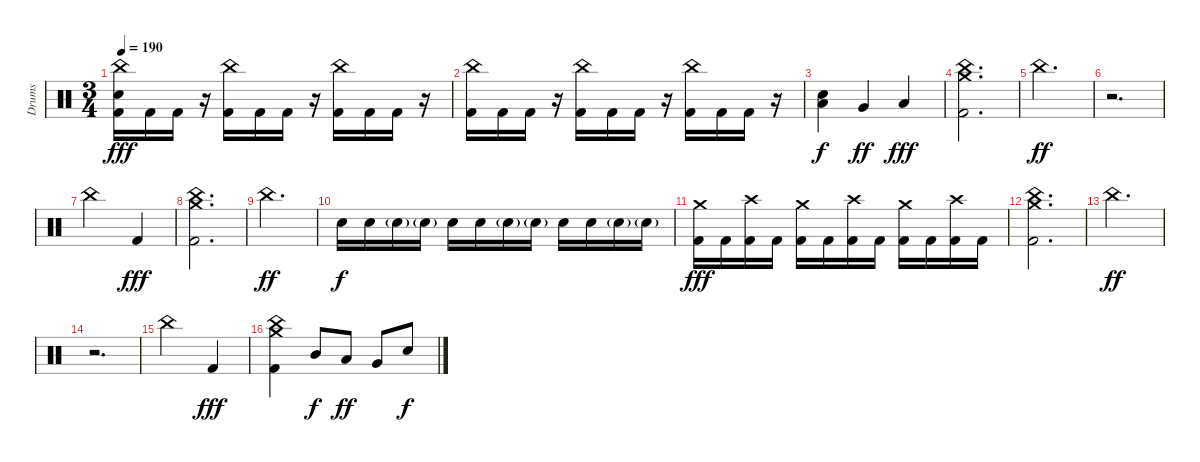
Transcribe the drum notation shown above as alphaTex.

\track ("Drums" "Drums") {instrument percussion}
\staff {score}
\articulation defaults
\ts (3 4)
\tempo 190
\clef neutral
\ks c
("China (hit)" "Snare (hit) 2" "Kick (hit) 2").16{dy fff} "Kick (hit) 2".16 "Kick (hit) 2".16 r.16 ("China (hit)" "Kick (hit) 2").16 "Kick (hit) 2".16 "Kick (hit) 2".16 r.16 ("China (hit)" "Kick (hit) 2").16 "Kick (hit) 2".16 "Kick (hit) 2".16 r.16 |
("China (hit)" "Kick (hit) 2").16 "Kick (hit) 2".16 "Kick (hit) 2".16 r.16 ("China (hit)" "Kick (hit) 2").16 "Kick (hit) 2".16 "Kick (hit) 2".16 r.16 ("China (hit)" "Kick (hit) 2").16 "Kick (hit) 2".16 "Kick (hit) 2".16 r.16 |
("Low Tom (hit)" "Snare (hit) 2").4{dy f} "Very Low Tom (hit)".4{dy ff} "Low Floor Tom (hit)".4{dy fff} |
("Crash medium (hit)" "China (hit)" "Kick (hit) 2").2{d} |
"China (hit)".2{d dy ff} |
r.2{d} |
"China (hit)".2 "Kick (hit) 2".4{dy fff} |
("Crash medium (hit)" "China (hit)" "Kick (hit) 2").2{d} |
"China (hit)".2{d dy ff} |
"Snare (hit) 2".16{dy f} "Snare (hit) 2".16 "Snare (hit) 2"{g}.16 "Snare (hit) 2"{g}.16 "Snare (hit) 2".16 "Snare (hit) 2".16 "Snare (hit) 2"{g}.16 "Snare (hit) 2"{g}.16 "Snare (hit) 2".16 "Snare (hit) 2".16 "Snare (hit) 2"{g}.16 "Snare (hit) 2"{g}.16 |
("Crash medium (hit)" "Kick (hit) 2").16{dy fff} "Kick (hit) 2".16 ("Crash high (hit)" "Kick (hit) 2").16 "Kick (hit) 2".16 ("Crash medium (hit)" "Kick (hit) 2").16 "Kick (hit) 2".16 ("Crash high (hit)" "Kick (hit) 2").16 "Kick (hit) 2".16 ("Crash medium (hit)" "Kick (hit) 2").16 "Kick (hit) 2".16 ("Crash high (hit)" "Kick (hit) 2").16 "Kick (hit) 2".16 |
("Crash medium (hit)" "China (hit)" "Kick (hit) 2").2{d} |
"China (hit)".2{d dy ff} |
r.2{d} |
"China (hit)".2 "Kick (hit) 2".4{dy fff} |
("Crash medium (hit)" "China (hit)" "Kick (hit) 2").4 "Mid Tom (hit)".8{dy f} "Low Tom (hit)".8{dy ff} "Very Low Tom (hit)".8 "Snare (hit) 2".8{dy f}
